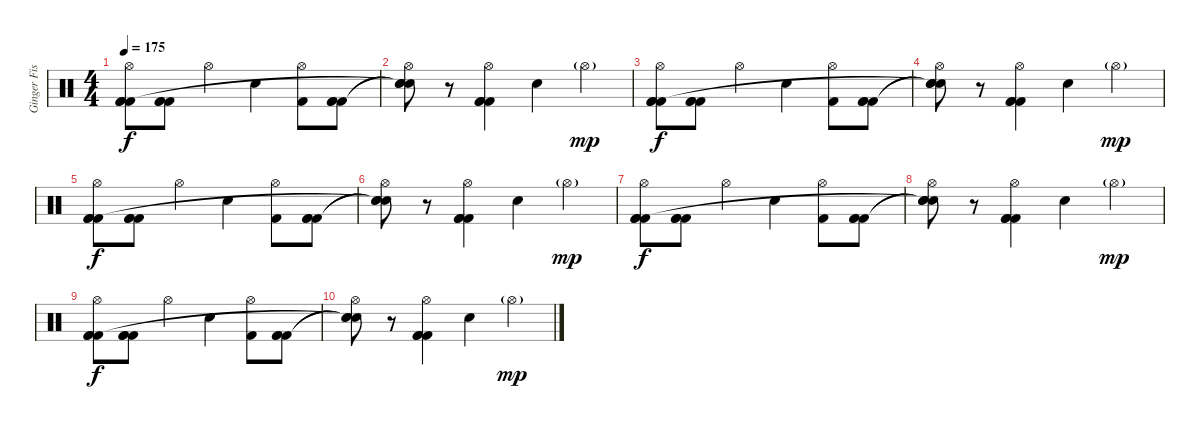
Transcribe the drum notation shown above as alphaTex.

\track ("Ginger Fish" "Ginger Fis") {instrument percussion}
\staff {score}
\articulation defaults
\ts (4 4)
\tempo 175
\clef neutral
\ks c
("Hi-Hat (open)" "Kick (hit) 2" "Kick (hit) 2" "Kick (hit) 2").8{dy f} ("Kick (hit) 2" "Kick (hit) 2" "Kick (hit) 2").8 "Hi-Hat (open)".4 "Snare (hit) 2".4 ("Hi-Hat (open)" "Kick (hit) 2").8 ("Kick (hit) 2" "Kick (hit) 2" "Kick (hit) 2").8 |
("Hi-Hat (open)" "Snare (hit)"{t} "Snare (hit)"{t} "Snare (hit)"{t}).8 r.8 ("Hi-Hat (open)" "Kick (hit) 2" "Kick (hit) 2" "Kick (hit) 2").4 "Snare (hit) 2".4 "Hi-Hat (open)"{g}.4{dy mp} |
("Hi-Hat (open)" "Kick (hit) 2" "Kick (hit) 2" "Kick (hit) 2").8{dy f} ("Kick (hit) 2" "Kick (hit) 2" "Kick (hit) 2").8 "Hi-Hat (open)".4 "Snare (hit) 2".4 ("Hi-Hat (open)" "Kick (hit) 2").8 ("Kick (hit) 2" "Kick (hit) 2" "Kick (hit) 2").8 |
("Hi-Hat (open)" "Snare (hit)"{t} "Snare (hit)"{t} "Snare (hit)"{t}).8 r.8 ("Hi-Hat (open)" "Kick (hit) 2" "Kick (hit) 2" "Kick (hit) 2").4 "Snare (hit) 2".4 "Hi-Hat (open)"{g}.4{dy mp} |
("Hi-Hat (open)" "Kick (hit) 2" "Kick (hit) 2" "Kick (hit) 2").8{dy f} ("Kick (hit) 2" "Kick (hit) 2" "Kick (hit) 2").8 "Hi-Hat (open)".4 "Snare (hit) 2".4 ("Hi-Hat (open)" "Kick (hit) 2").8 ("Kick (hit) 2" "Kick (hit) 2" "Kick (hit) 2").8 |
("Hi-Hat (open)" "Snare (hit)"{t} "Snare (hit)"{t} "Snare (hit)"{t}).8 r.8 ("Hi-Hat (open)" "Kick (hit) 2" "Kick (hit) 2" "Kick (hit) 2").4 "Snare (hit) 2".4 "Hi-Hat (open)"{g}.4{dy mp} |
("Hi-Hat (open)" "Kick (hit) 2" "Kick (hit) 2" "Kick (hit) 2").8{dy f} ("Kick (hit) 2" "Kick (hit) 2" "Kick (hit) 2").8 "Hi-Hat (open)".4 "Snare (hit) 2".4 ("Hi-Hat (open)" "Kick (hit) 2").8 ("Kick (hit) 2" "Kick (hit) 2" "Kick (hit) 2").8 |
("Hi-Hat (open)" "Snare (hit)"{t} "Snare (hit)"{t} "Snare (hit)"{t}).8 r.8 ("Hi-Hat (open)" "Kick (hit) 2" "Kick (hit) 2" "Kick (hit) 2").4 "Snare (hit) 2".4 "Hi-Hat (open)"{g}.4{dy mp} |
("Hi-Hat (open)" "Kick (hit) 2" "Kick (hit) 2" "Kick (hit) 2").8{dy f} ("Kick (hit) 2" "Kick (hit) 2" "Kick (hit) 2").8 "Hi-Hat (open)".4 "Snare (hit) 2".4 ("Hi-Hat (open)" "Kick (hit) 2").8 ("Kick (hit) 2" "Kick (hit) 2" "Kick (hit) 2").8 |
("Hi-Hat (open)" "Snare (hit)"{t} "Snare (hit)"{t} "Snare (hit)"{t}).8 r.8 ("Hi-Hat (open)" "Kick (hit) 2" "Kick (hit) 2" "Kick (hit) 2").4 "Snare (hit) 2".4 "Hi-Hat (open)"{g}.4{dy mp}
